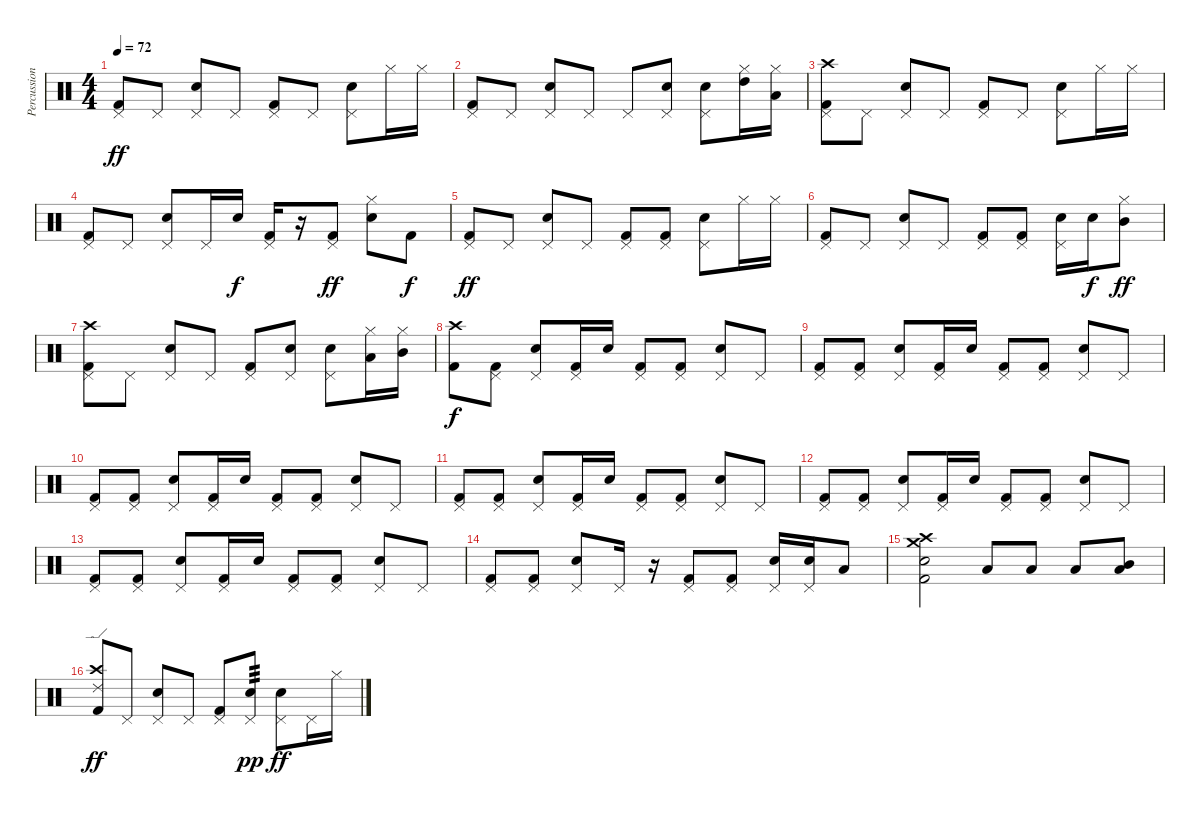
\track ("Percussion" "Percussion") {instrument percussion}
\staff {score}
\articulation defaults
\ts (4 4)
\tempo 72
\clef neutral
\ks c
("Pedal Hi-Hat (hit)" "Kick (hit) 2").8{dy ff} "Pedal Hi-Hat (hit)".8 ("Pedal Hi-Hat (hit)" "Snare (hit) 2").8 "Pedal Hi-Hat (hit)".8 ("Pedal Hi-Hat (hit)" "Kick (hit) 2").8 "Pedal Hi-Hat (hit)".8 ("Pedal Hi-Hat (hit)" "Snare (hit) 2").8 "Hi-Hat (closed)".16 "Hi-Hat (closed)".16 |
("Pedal Hi-Hat (hit)" "Kick (hit) 2").8 "Pedal Hi-Hat (hit)".8 ("Pedal Hi-Hat (hit)" "Snare (hit) 2").8 "Pedal Hi-Hat (hit)".8 "Pedal Hi-Hat (hit)".8 ("Pedal Hi-Hat (hit)" "Snare (hit) 2").8 ("Pedal Hi-Hat (hit)" "Snare (hit) 2").8 ("Hi-Hat (closed)" "High Tom (hit)").16 ("Hi-Hat (closed)" "Low Tom (hit)").16 |
("Pedal Hi-Hat (hit)" "Crash high (hit)" "Kick (hit) 2").8 "Pedal Hi-Hat (hit)".8 ("Pedal Hi-Hat (hit)" "Snare (hit) 2").8 "Pedal Hi-Hat (hit)".8 ("Pedal Hi-Hat (hit)" "Kick (hit) 2").8 "Pedal Hi-Hat (hit)".8 ("Pedal Hi-Hat (hit)" "Snare (hit) 2").8 "Hi-Hat (closed)".16 "Hi-Hat (closed)".16 |
("Pedal Hi-Hat (hit)" "Kick (hit) 2").8 "Pedal Hi-Hat (hit)".8 ("Pedal Hi-Hat (hit)" "Snare (hit) 2").8 "Pedal Hi-Hat (hit)".16 "Snare (hit) 2".16{dy f} ("Pedal Hi-Hat (hit)" "Kick (hit) 2").16 r.16 ("Pedal Hi-Hat (hit)" "Kick (hit) 2").8{dy ff} ("Hi-Hat (closed)" "Snare (hit) 2").8 "Kick (hit) 2".8{dy f} |
("Pedal Hi-Hat (hit)" "Kick (hit) 2").8{dy ff} "Pedal Hi-Hat (hit)".8 ("Pedal Hi-Hat (hit)" "Snare (hit) 2").8 "Pedal Hi-Hat (hit)".8 ("Pedal Hi-Hat (hit)" "Kick (hit) 2").8 ("Pedal Hi-Hat (hit)" "Kick (hit) 2").8 ("Pedal Hi-Hat (hit)" "Snare (hit) 2").8 "Hi-Hat (closed)".16 "Hi-Hat (closed)".16 |
("Pedal Hi-Hat (hit)" "Kick (hit) 2").8 "Pedal Hi-Hat (hit)".8 ("Pedal Hi-Hat (hit)" "Snare (hit) 2").8 "Pedal Hi-Hat (hit)".8 ("Pedal Hi-Hat (hit)" "Kick (hit) 2").8 ("Pedal Hi-Hat (hit)" "Kick (hit) 2").8 ("Pedal Hi-Hat (hit)" "Snare (hit) 2").16 "Snare (hit) 2".16{dy f} ("Hi-Hat (closed)" "Mid Tom (hit)").8{dy ff} |
("Pedal Hi-Hat (hit)" "Crash high (hit)" "Kick (hit) 2").8 "Pedal Hi-Hat (hit)".8 ("Pedal Hi-Hat (hit)" "Snare (hit) 2").8 "Pedal Hi-Hat (hit)".8 ("Pedal Hi-Hat (hit)" "Kick (hit) 2").8 ("Pedal Hi-Hat (hit)" "Snare (hit) 2").8 ("Pedal Hi-Hat (hit)" "Snare (hit) 2").8 ("Hi-Hat (closed)" "Low Tom (hit)").16 ("Hi-Hat (closed)" "Mid Tom (hit)").16 |
("Crash high (hit)" "Kick (hit) 2").8{dy f} ("Pedal Hi-Hat (hit)" "Kick (hit) 2").8 ("Pedal Hi-Hat (hit)" "Snare (hit) 2").8 ("Pedal Hi-Hat (hit)" "Kick (hit) 2").16 "Snare (hit) 2".16 ("Pedal Hi-Hat (hit)" "Kick (hit) 2").8 ("Pedal Hi-Hat (hit)" "Kick (hit) 2").8 ("Pedal Hi-Hat (hit)" "Snare (hit) 2").8 "Pedal Hi-Hat (hit)".8 |
("Pedal Hi-Hat (hit)" "Kick (hit) 2").8 ("Pedal Hi-Hat (hit)" "Kick (hit) 2").8 ("Pedal Hi-Hat (hit)" "Snare (hit) 2").8 ("Pedal Hi-Hat (hit)" "Kick (hit) 2").16 "Snare (hit) 2".16 ("Pedal Hi-Hat (hit)" "Kick (hit) 2").8 ("Pedal Hi-Hat (hit)" "Kick (hit) 2").8 ("Pedal Hi-Hat (hit)" "Snare (hit) 2").8 "Pedal Hi-Hat (hit)".8 |
("Pedal Hi-Hat (hit)" "Kick (hit) 2").8 ("Pedal Hi-Hat (hit)" "Kick (hit) 2").8 ("Pedal Hi-Hat (hit)" "Snare (hit) 2").8 ("Pedal Hi-Hat (hit)" "Kick (hit) 2").16 "Snare (hit) 2".16 ("Pedal Hi-Hat (hit)" "Kick (hit) 2").8 ("Pedal Hi-Hat (hit)" "Kick (hit) 2").8 ("Pedal Hi-Hat (hit)" "Snare (hit) 2").8 "Pedal Hi-Hat (hit)".8 |
("Pedal Hi-Hat (hit)" "Kick (hit) 2").8 ("Pedal Hi-Hat (hit)" "Kick (hit) 2").8 ("Pedal Hi-Hat (hit)" "Snare (hit) 2").8 ("Pedal Hi-Hat (hit)" "Kick (hit) 2").16 "Snare (hit) 2".16 ("Pedal Hi-Hat (hit)" "Kick (hit) 2").8 ("Pedal Hi-Hat (hit)" "Kick (hit) 2").8 ("Pedal Hi-Hat (hit)" "Snare (hit) 2").8 "Pedal Hi-Hat (hit)".8 |
("Pedal Hi-Hat (hit)" "Kick (hit) 2").8 ("Pedal Hi-Hat (hit)" "Kick (hit) 2").8 ("Pedal Hi-Hat (hit)" "Snare (hit) 2").8 ("Pedal Hi-Hat (hit)" "Kick (hit) 2").16 "Snare (hit) 2".16 ("Pedal Hi-Hat (hit)" "Kick (hit) 2").8 ("Pedal Hi-Hat (hit)" "Kick (hit) 2").8 ("Pedal Hi-Hat (hit)" "Snare (hit) 2").8 "Pedal Hi-Hat (hit)".8 |
("Pedal Hi-Hat (hit)" "Kick (hit) 2").8 ("Pedal Hi-Hat (hit)" "Kick (hit) 2").8 ("Pedal Hi-Hat (hit)" "Snare (hit) 2").8 ("Pedal Hi-Hat (hit)" "Kick (hit) 2").16 "Snare (hit) 2".16 ("Pedal Hi-Hat (hit)" "Kick (hit) 2").8 ("Pedal Hi-Hat (hit)" "Kick (hit) 2").8 ("Pedal Hi-Hat (hit)" "Snare (hit) 2").8 "Pedal Hi-Hat (hit)".8 |
("Pedal Hi-Hat (hit)" "Kick (hit) 2").8 ("Pedal Hi-Hat (hit)" "Kick (hit) 2").8 ("Pedal Hi-Hat (hit)" "Snare (hit) 2").8 "Pedal Hi-Hat (hit)".16 r.16 ("Pedal Hi-Hat (hit)" "Kick (hit) 2").8 ("Pedal Hi-Hat (hit)" "Kick (hit) 2").8 ("Pedal Hi-Hat (hit)" "Snare (hit) 2").16 ("Pedal Hi-Hat (hit)" "Snare (hit) 2").16 "Low Tom (hit)".8 |
("Crash high (hit)" "Crash medium (hit)" "Snare (hit) 2" "Kick (hit) 2").2 "Low Floor Tom (hit)".8 "Low Floor Tom (hit)".8 "Low Floor Tom (hit)".8 ("Mid Tom (hit)" "Low Floor Tom (hit)").8 |
("Ride (edge) 2" "Crash high (hit)" "Kick (hit) 2").8{dy ff} "Pedal Hi-Hat (hit)".8 ("Pedal Hi-Hat (hit)" "Snare (hit) 2").8 "Pedal Hi-Hat (hit)".8 ("Pedal Hi-Hat (hit)" "Kick (hit) 2").8 ("Pedal Hi-Hat (hit)" "Snare (hit) 2").8{tp 3 dy pp} ("Pedal Hi-Hat (hit)" "Snare (hit) 2").8{dy ff} "Pedal Hi-Hat (hit)".16 "Hi-Hat (closed)".16
